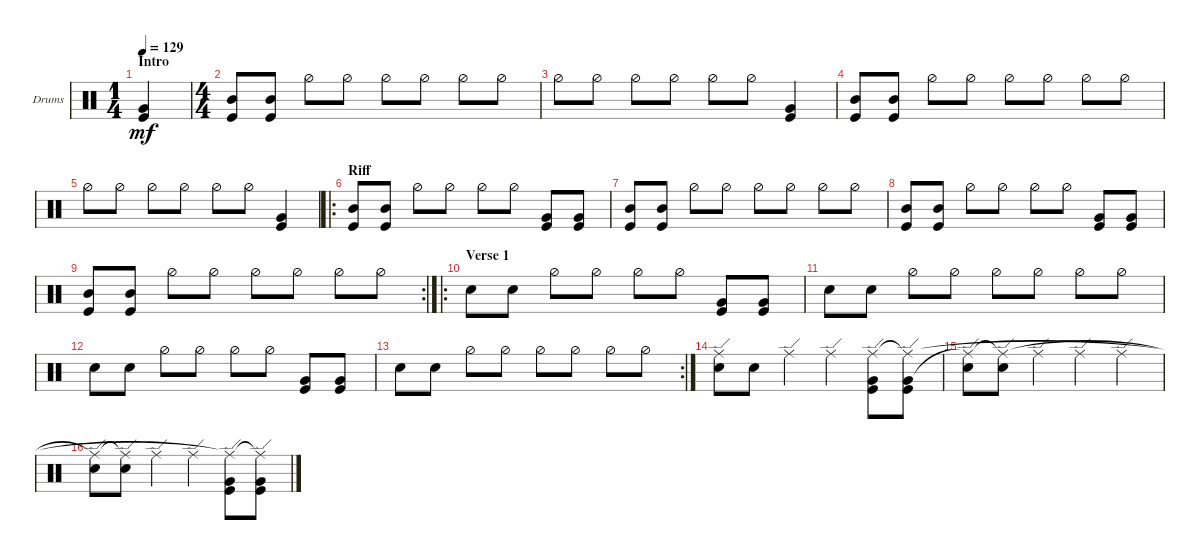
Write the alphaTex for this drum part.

\bracketExtendMode groupsimilarinstruments
\firstSystemTrackNameOrientation horizontal
\otherSystemsTrackNameOrientation horizontal
\track ("Drumkit" "Drums") {instrument percussion}
\staff {score}
\articulation defaults
\ts (1 4)
\section ("" "Intro")
\tempo 129
\clef neutral
\ks c
("Kick (hit)" "Very Low Tom (hit)").4{dy mf} |
\ts (4 4)
\scale
0.472222 ("Kick (hit)" "Mid Tom (hit)").8 ("Mid Tom (hit)" "Kick (hit)").8 "Hi-Hat (half)".8 "Hi-Hat (half)".8 "Hi-Hat (half)".8 "Hi-Hat (half)".8 "Hi-Hat (half)".8 "Hi-Hat (half)".8 |
\scale
0.263889 "Hi-Hat (half)".8 "Hi-Hat (half)".8 "Hi-Hat (half)".8 "Hi-Hat (half)".8 "Hi-Hat (half)".8 "Hi-Hat (half)".8 ("Kick (hit)" "Very Low Tom (hit)").4 |
("Kick (hit)" "Mid Tom (hit)").8 ("Mid Tom (hit)" "Kick (hit)").8 "Hi-Hat (half)".8 "Hi-Hat (half)".8 "Hi-Hat (half)".8 "Hi-Hat (half)".8 "Hi-Hat (half)".8 "Hi-Hat (half)".8 |
"Hi-Hat (half)".8 "Hi-Hat (half)".8 "Hi-Hat (half)".8 "Hi-Hat (half)".8 "Hi-Hat (half)".8 "Hi-Hat (half)".8 ("Kick (hit)" "Very Low Tom (hit)").4 |
\ro
\section ("" "Riff")
\scale
0.263889 ("Kick (hit)" "Mid Tom (hit)").8 ("Mid Tom (hit)" "Kick (hit)").8 "Hi-Hat (half)".8 "Hi-Hat (half)".8 "Hi-Hat (half)".8 "Hi-Hat (half)".8 ("Kick (hit)" "Very Low Tom (hit)").8 ("Kick (hit)" "Very Low Tom (hit)").8 |
\scale
0.333333 ("Kick (hit)" "Mid Tom (hit)").8 ("Mid Tom (hit)" "Kick (hit)").8 "Hi-Hat (half)".8 "Hi-Hat (half)".8 "Hi-Hat (half)".8 "Hi-Hat (half)".8 "Hi-Hat (half)".8 "Hi-Hat (half)".8 |
\scale
0.333333 ("Kick (hit)" "Mid Tom (hit)").8 ("Mid Tom (hit)" "Kick (hit)").8 "Hi-Hat (half)".8 "Hi-Hat (half)".8 "Hi-Hat (half)".8 "Hi-Hat (half)".8 ("Kick (hit)" "Very Low Tom (hit)").8 ("Kick (hit)" "Very Low Tom (hit)").8 |
\rc 2
\scale
0.333333 ("Kick (hit)" "Mid Tom (hit)").8 ("Mid Tom (hit)" "Kick (hit)").8 "Hi-Hat (half)".8 "Hi-Hat (half)".8 "Hi-Hat (half)".8 "Hi-Hat (half)".8 "Hi-Hat (half)".8 "Hi-Hat (half)".8 |
\ro
\section ("" "Verse 1")
"Snare (hit) 2".8 "Snare (hit) 2".8 "Hi-Hat (half)".8 "Hi-Hat (half)".8 "Hi-Hat (half)".8 "Hi-Hat (half)".8 ("Kick (hit)" "Very Low Tom (hit)").8 ("Kick (hit)" "Very Low Tom (hit)").8 |
"Snare (hit) 2".8 "Snare (hit) 2".8 "Hi-Hat (half)".8 "Hi-Hat (half)".8 "Hi-Hat (half)".8 "Hi-Hat (half)".8 "Hi-Hat (half)".8 "Hi-Hat (half)".8 |
"Snare (hit) 2".8 "Snare (hit) 2".8 "Hi-Hat (half)".8 "Hi-Hat (half)".8 "Hi-Hat (half)".8 "Hi-Hat (half)".8 ("Kick (hit)" "Very Low Tom (hit)").8 ("Kick (hit)" "Very Low Tom (hit)").8 |
\rc 2 "Snare (hit) 2".8 "Snare (hit) 2".8 "Hi-Hat (half)".8 "Hi-Hat (half)".8 "Hi-Hat (half)".8 "Hi-Hat (half)".8 "Hi-Hat (half)".8 "Hi-Hat (half)".8
|
("Snare (hit) 2" "Ride (edge)").8 "Snare (hit) 2".8 "Ride (edge)".4 "Ride (edge)".4 ("Kick (hit)" "Very Low Tom (hit)" "Ride (edge)").8 ("Kick (hit)" "Very Low Tom (hit)" "Ride (edge)"{t}).8 |
("Snare (hit) 2" "Ride (edge)"{t}).8 ("Snare (hit) 2" "Ride (edge)"{t}).8 "Ride (edge)".4 "Ride (edge)".4 "Ride (edge)".4 |
("Snare (hit) 2" "Ride (edge)"{t}).8 ("Snare (hit) 2" "Ride (edge)"{t}).8 "Ride (edge)".4 "Ride (edge)".4 ("Kick (hit)" "Very Low Tom (hit)" "Ride (edge)"{t}).8 ("Kick (hit)" "Very Low Tom (hit)" "Ride (edge)"{t}).8
